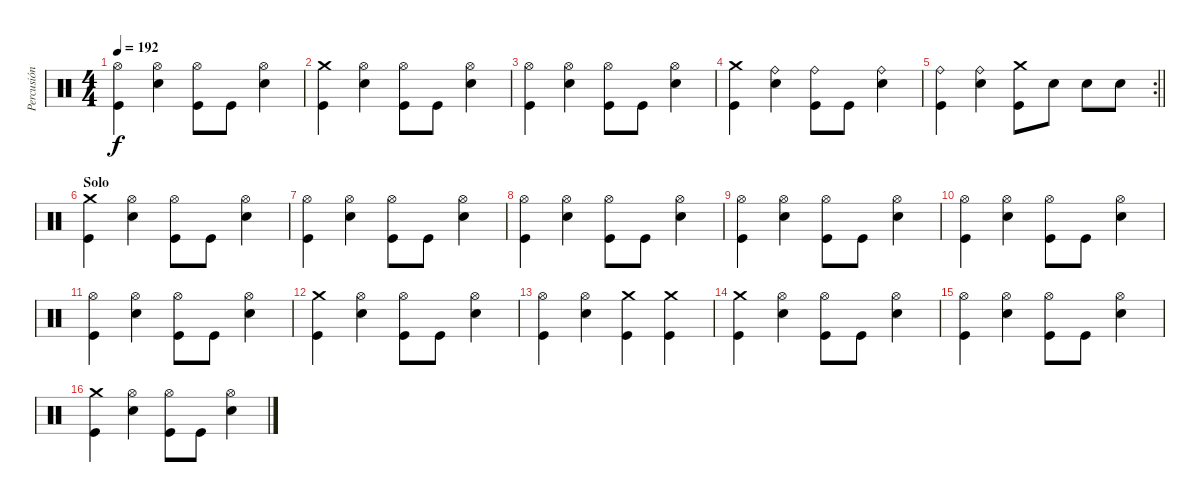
\track ("Percusión" "Percusión") {instrument percussion}
\staff {score}
\articulation defaults
\ts (4 4)
\tempo 192
\clef neutral
\ks c
("Hi-Hat (open)" "Kick (hit)").4{dy f} ("Hi-Hat (open)" "Snare (hit) 2").4 ("Hi-Hat (open)" "Kick (hit)").8 "Kick (hit)".8 ("Hi-Hat (open)" "Snare (hit) 2").4 |
("Crash medium (hit)" "Kick (hit)").4 ("Hi-Hat (open)" "Snare (hit) 2").4 ("Hi-Hat (open)" "Kick (hit)").8 "Kick (hit)".8 ("Hi-Hat (open)" "Snare (hit) 2").4 |
("Hi-Hat (open)" "Kick (hit)").4 ("Hi-Hat (open)" "Snare (hit) 2").4 ("Hi-Hat (open)" "Kick (hit)").8 "Kick (hit)".8 ("Hi-Hat (open)" "Snare (hit) 2").4 |
("Crash medium (hit)" "Kick (hit)").4 ("Ride (bell)" "Snare (hit) 2").4 ("Ride (bell)" "Kick (hit)").8 "Kick (hit)".8 ("Ride (bell)" "Snare (hit) 2").4 |
\rc 2
\barLineRight lightlight
("Ride (bell)" "Kick (hit)").4 ("Ride (bell)" "Snare (hit) 2").4 ("Crash medium (hit)" "Kick (hit)").8 "Snare (hit) 2".8 "Snare (hit) 2".8 "Snare (hit) 2".8 |
\section ("" "Solo")
("Crash medium (hit)" "Kick (hit)").4 ("Hi-Hat (open)" "Snare (hit) 2").4 ("Hi-Hat (open)" "Kick (hit)").8 "Kick (hit)".8 ("Hi-Hat (open)" "Snare (hit) 2").4 |
("Hi-Hat (open)" "Kick (hit)").4 ("Hi-Hat (open)" "Snare (hit) 2").4 ("Hi-Hat (open)" "Kick (hit)").8 "Kick (hit)".8 ("Hi-Hat (open)" "Snare (hit) 2").4 |
("Hi-Hat (open)" "Kick (hit)").4 ("Hi-Hat (open)" "Snare (hit) 2").4 ("Hi-Hat (open)" "Kick (hit)").8 "Kick (hit)".8 ("Hi-Hat (open)" "Snare (hit) 2").4 |
("Hi-Hat (open)" "Kick (hit)").4 ("Hi-Hat (open)" "Snare (hit) 2").4 ("Hi-Hat (open)" "Kick (hit)").8 "Kick (hit)".8 ("Hi-Hat (open)" "Snare (hit) 2").4 |
("Hi-Hat (open)" "Kick (hit)").4 ("Hi-Hat (open)" "Snare (hit) 2").4 ("Hi-Hat (open)" "Kick (hit)").8 "Kick (hit)".8 ("Hi-Hat (open)" "Snare (hit) 2").4 |
("Hi-Hat (open)" "Kick (hit)").4 ("Hi-Hat (open)" "Snare (hit) 2").4 ("Hi-Hat (open)" "Kick (hit)").8 "Kick (hit)".8 ("Hi-Hat (open)" "Snare (hit) 2").4 |
("Crash medium (hit)" "Kick (hit)").4 ("Hi-Hat (open)" "Snare (hit) 2").4 ("Hi-Hat (open)" "Kick (hit)").8 "Kick (hit)".8 ("Hi-Hat (open)" "Snare (hit) 2").4 |
("Hi-Hat (open)" "Kick (hit)").4 ("Hi-Hat (open)" "Snare (hit) 2").4 ("Crash medium (hit)" "Kick (hit)").4 ("Crash medium (hit)" "Kick (hit)").4 |
("Crash medium (hit)" "Kick (hit)").4 ("Hi-Hat (open)" "Snare (hit) 2").4 ("Hi-Hat (open)" "Kick (hit)").8 "Kick (hit)".8 ("Hi-Hat (open)" "Snare (hit) 2").4 |
("Hi-Hat (open)" "Kick (hit)").4 ("Hi-Hat (open)" "Snare (hit) 2").4 ("Hi-Hat (open)" "Kick (hit)").8 "Kick (hit)".8 ("Hi-Hat (open)" "Snare (hit) 2").4 |
("Crash medium (hit)" "Kick (hit)").4 ("Hi-Hat (open)" "Snare (hit) 2").4 ("Hi-Hat (open)" "Kick (hit)").8 "Kick (hit)".8 ("Hi-Hat (open)" "Snare (hit) 2").4
